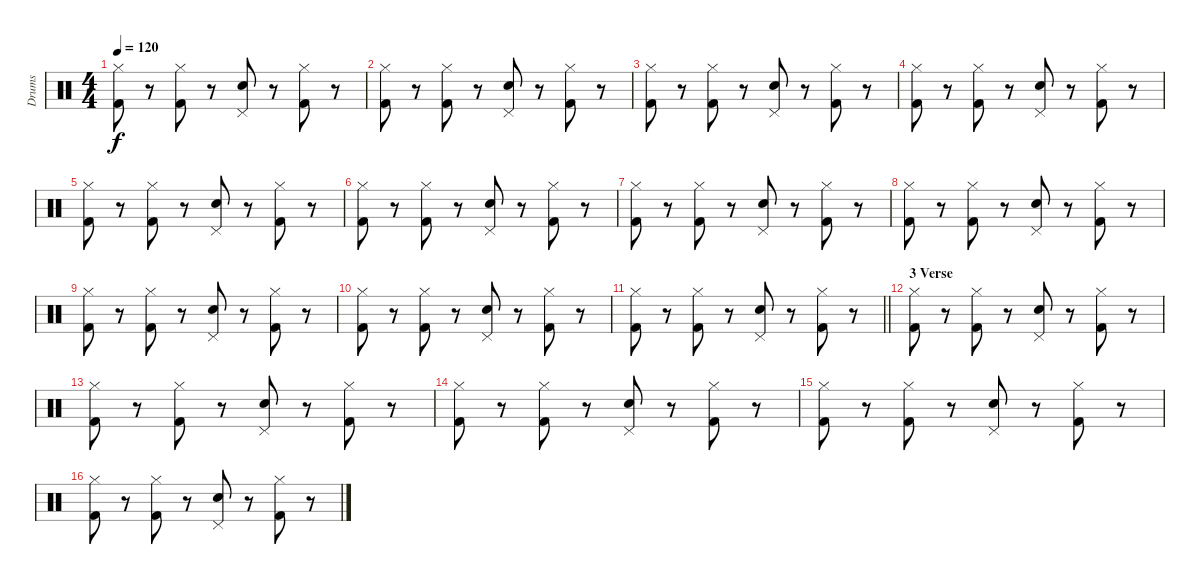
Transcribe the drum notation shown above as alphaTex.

\track ("Drums" "Drums") {instrument percussion}
\staff {score}
\articulation defaults
\ts (4 4)
\tempo 120
\clef neutral
\ks c
("Hi-Hat (closed)" "Kick (hit) 2").8{dy f} r.8 ("Hi-Hat (closed)" "Kick (hit) 2").8 r.8 ("Pedal Hi-Hat (hit)" "Electric Snare (hit)").8 r.8 ("Hi-Hat (closed)" "Kick (hit) 2").8 r.8 |
("Hi-Hat (closed)" "Kick (hit) 2").8 r.8 ("Hi-Hat (closed)" "Kick (hit) 2").8 r.8 ("Pedal Hi-Hat (hit)" "Electric Snare (hit)").8 r.8 ("Hi-Hat (closed)" "Kick (hit) 2").8 r.8 |
("Hi-Hat (closed)" "Kick (hit) 2").8 r.8 ("Hi-Hat (closed)" "Kick (hit) 2").8 r.8 ("Pedal Hi-Hat (hit)" "Electric Snare (hit)").8 r.8 ("Hi-Hat (closed)" "Kick (hit) 2").8 r.8 |
("Hi-Hat (closed)" "Kick (hit) 2").8 r.8 ("Hi-Hat (closed)" "Kick (hit) 2").8 r.8 ("Pedal Hi-Hat (hit)" "Electric Snare (hit)").8 r.8 ("Hi-Hat (closed)" "Kick (hit) 2").8 r.8 |
("Hi-Hat (closed)" "Kick (hit) 2").8 r.8 ("Hi-Hat (closed)" "Kick (hit) 2").8 r.8 ("Pedal Hi-Hat (hit)" "Electric Snare (hit)").8 r.8 ("Hi-Hat (closed)" "Kick (hit) 2").8 r.8 |
("Hi-Hat (closed)" "Kick (hit) 2").8 r.8 ("Hi-Hat (closed)" "Kick (hit) 2").8 r.8 ("Pedal Hi-Hat (hit)" "Electric Snare (hit)").8 r.8 ("Hi-Hat (closed)" "Kick (hit) 2").8 r.8 |
("Hi-Hat (closed)" "Kick (hit) 2").8 r.8 ("Hi-Hat (closed)" "Kick (hit) 2").8 r.8 ("Pedal Hi-Hat (hit)" "Electric Snare (hit)").8 r.8 ("Hi-Hat (closed)" "Kick (hit) 2").8 r.8 |
("Hi-Hat (closed)" "Kick (hit) 2").8 r.8 ("Hi-Hat (closed)" "Kick (hit) 2").8 r.8 ("Pedal Hi-Hat (hit)" "Electric Snare (hit)").8 r.8 ("Hi-Hat (closed)" "Kick (hit) 2").8 r.8 |
("Hi-Hat (closed)" "Kick (hit) 2").8 r.8 ("Hi-Hat (closed)" "Kick (hit) 2").8 r.8 ("Pedal Hi-Hat (hit)" "Electric Snare (hit)").8 r.8 ("Hi-Hat (closed)" "Kick (hit) 2").8 r.8 |
("Hi-Hat (closed)" "Kick (hit) 2").8 r.8 ("Hi-Hat (closed)" "Kick (hit) 2").8 r.8 ("Pedal Hi-Hat (hit)" "Electric Snare (hit)").8 r.8 ("Hi-Hat (closed)" "Kick (hit) 2").8 r.8 |
\barLineRight lightlight
("Hi-Hat (closed)" "Kick (hit) 2").8 r.8 ("Hi-Hat (closed)" "Kick (hit) 2").8 r.8 ("Pedal Hi-Hat (hit)" "Electric Snare (hit)").8 r.8 ("Hi-Hat (closed)" "Kick (hit) 2").8 r.8 |
\section ("" "3 Verse")
("Hi-Hat (closed)" "Kick (hit) 2").8 r.8 ("Hi-Hat (closed)" "Kick (hit) 2").8 r.8 ("Pedal Hi-Hat (hit)" "Electric Snare (hit)").8 r.8 ("Hi-Hat (closed)" "Kick (hit) 2").8 r.8 |
("Hi-Hat (closed)" "Kick (hit) 2").8 r.8 ("Hi-Hat (closed)" "Kick (hit) 2").8 r.8 ("Pedal Hi-Hat (hit)" "Electric Snare (hit)").8 r.8 ("Hi-Hat (closed)" "Kick (hit) 2").8 r.8 |
("Hi-Hat (closed)" "Kick (hit) 2").8 r.8 ("Hi-Hat (closed)" "Kick (hit) 2").8 r.8 ("Pedal Hi-Hat (hit)" "Electric Snare (hit)").8 r.8 ("Hi-Hat (closed)" "Kick (hit) 2").8 r.8 |
("Hi-Hat (closed)" "Kick (hit) 2").8 r.8 ("Hi-Hat (closed)" "Kick (hit) 2").8 r.8 ("Pedal Hi-Hat (hit)" "Electric Snare (hit)").8 r.8 ("Hi-Hat (closed)" "Kick (hit) 2").8 r.8 |
("Hi-Hat (closed)" "Kick (hit) 2").8 r.8 ("Hi-Hat (closed)" "Kick (hit) 2").8 r.8 ("Pedal Hi-Hat (hit)" "Electric Snare (hit)").8 r.8 ("Hi-Hat (closed)" "Kick (hit) 2").8 r.8
